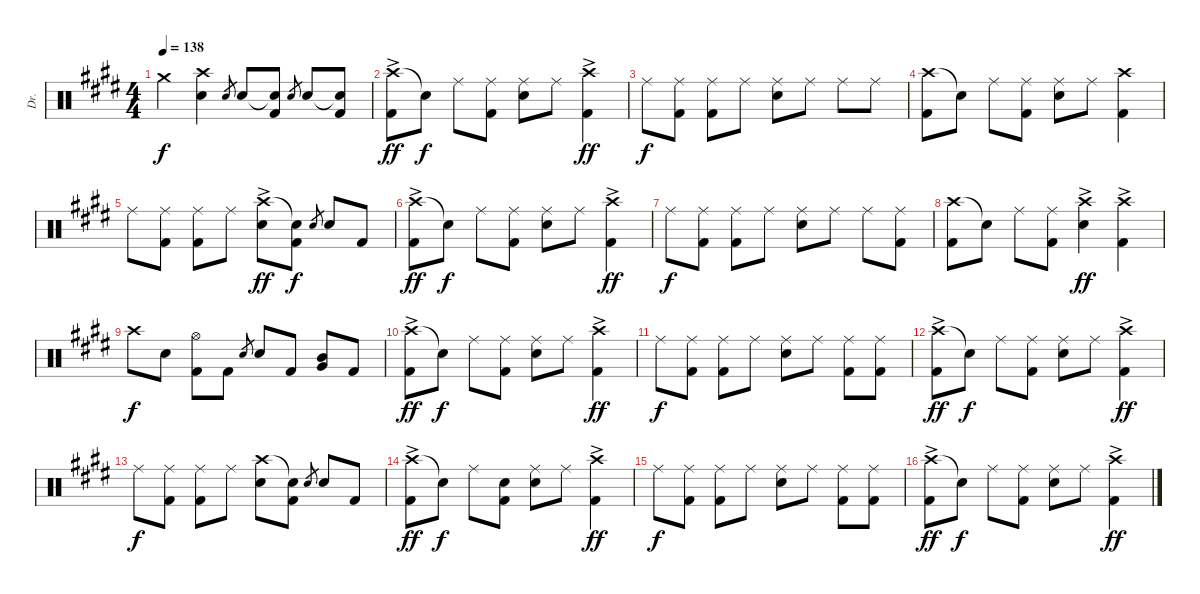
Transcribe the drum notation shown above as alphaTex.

\track ("Dr." "Dr.") {instrument percussion}
\staff {score}
\articulation defaults
\ts (4 4)
\tempo 138
\clef neutral
\ks e "Crash medium (hit)".4{dy f}
("Crash high (hit)" "Snare (hit) 2").4 "Snare (hit) 2".8{gr} "Snare (hit) 2".8 ("Snare (hit)"{t} "Kick (hit) 2").8 "Snare (hit) 2".8{gr} "Snare (hit) 2".8 ("Snare (hit)"{t} "Kick (hit) 2").8 |
("Crash high (hit)"{ac} "Kick (hit) 2").8{dy ff} "Snare (hit)"{t}.8{dy f} "Ride (middle)".8 ("Ride (middle)" "Kick (hit) 2").8 ("Ride (middle)" "Snare (hit) 2").8 "Ride (middle)".8 ("Crash high (hit)"{ac} "Kick (hit) 2").4{dy ff} |
"Ride (middle)".8{dy f} ("Ride (middle)" "Kick (hit) 2").8 ("Ride (middle)" "Kick (hit) 2").8 "Ride (middle)".8 ("Ride (middle)" "Snare (hit) 2").8 "Ride (middle)".8 "Ride (middle)".8 "Ride (middle)".8 |
("Crash high (hit)" "Kick (hit) 2").8 "Snare (hit)"{t}.8 "Ride (middle)".8 ("Ride (middle)" "Kick (hit) 2").8 ("Ride (middle)" "Snare (hit) 2").8 "Ride (middle)".8 ("Crash high (hit)" "Kick (hit) 2").4 |
"Ride (middle)".8 ("Ride (middle)" "Kick (hit) 2").8 ("Ride (middle)" "Kick (hit) 2").8 "Ride (middle)".8 ("Crash high (hit)"{ac} "Snare (hit) 2").8{dy ff} ("Snare (hit)"{t} "Kick (hit) 2").8{dy f} "Snare (hit) 2".8{gr} "Snare (hit) 2".8 "Kick (hit) 2".8 |
("Crash high (hit)"{ac} "Kick (hit) 2").8{dy ff} "Snare (hit)"{t}.8{dy f} "Ride (middle)".8 ("Ride (middle)" "Kick (hit) 2").8 ("Ride (middle)" "Snare (hit) 2").8 "Ride (middle)".8 ("Crash high (hit)"{ac} "Kick (hit) 2").4{dy ff} |
"Ride (middle)".8{dy f} ("Ride (middle)" "Kick (hit) 2").8 ("Ride (middle)" "Kick (hit) 2").8 "Ride (middle)".8 ("Ride (middle)" "Snare (hit) 2").8 "Ride (middle)".8 "Ride (middle)".8 ("Ride (middle)" "Kick (hit) 2").8 |
("Crash high (hit)" "Kick (hit) 2").8 "Snare (hit)"{t}.8 "Ride (middle)".8 ("Ride (middle)" "Kick (hit) 2").8 ("Crash high (hit)"{ac} "Snare (hit) 2").4{dy ff} ("Crash high (hit)"{ac} "Kick (hit) 2").4 |
"Crash high (hit)".8{dy f} "Snare (hit) 2".8 ("Hi-Hat (open)" "Kick (hit) 2").8 "Kick (hit) 2".8 "Snare (hit) 2".8{gr} "Snare (hit) 2".8 "Kick (hit) 2".8 ("Mid Tom (hit)" "Very Low Tom (hit)").8 "Kick (hit) 2".8 |
("Crash high (hit)"{ac} "Kick (hit) 2").8{dy ff} "Snare (hit)"{t}.8{dy f} "Ride (middle)".8 ("Ride (middle)" "Kick (hit) 2").8 ("Ride (middle)" "Snare (hit) 2").8 "Ride (middle)".8 ("Crash high (hit)"{ac} "Kick (hit) 2").4{dy ff} |
"Ride (middle)".8{dy f} ("Ride (middle)" "Kick (hit) 2").8 ("Ride (middle)" "Kick (hit) 2").8 "Ride (middle)".8 ("Ride (middle)" "Snare (hit) 2").8 "Ride (middle)".8 ("Ride (middle)" "Kick (hit) 2").8 ("Ride (middle)" "Kick (hit) 2").8 |
("Crash high (hit)"{ac} "Kick (hit) 2").8{dy ff} "Snare (hit)"{t}.8{dy f} "Ride (middle)".8 ("Ride (middle)" "Kick (hit) 2").8 ("Ride (middle)" "Snare (hit) 2").8 "Ride (middle)".8 ("Crash high (hit)"{ac} "Kick (hit) 2").4{dy ff} |
"Ride (middle)".8{dy f} ("Ride (middle)" "Kick (hit) 2").8 ("Ride (middle)" "Kick (hit) 2").8 "Ride (middle)".8 ("Crash high (hit)" "Snare (hit) 2").8 ("Snare (hit)"{t} "Kick (hit) 2").8 "Snare (hit) 2".8{gr} "Snare (hit) 2".8 "Kick (hit) 2".8 |
("Crash high (hit)"{ac} "Kick (hit) 2").8{dy ff} "Snare (hit)"{t}.8{dy f} "Ride (middle)".8 ("Snare (hit)" "Kick (hit) 2").8 ("Ride (middle)" "Snare (hit) 2").8 "Ride (middle)".8 ("Crash high (hit)"{ac} "Kick (hit) 2").4{dy ff} |
"Ride (middle)".8{dy f} ("Ride (middle)" "Kick (hit) 2").8 ("Ride (middle)" "Kick (hit) 2").8 "Ride (middle)".8 ("Ride (middle)" "Snare (hit) 2").8 "Ride (middle)".8 ("Ride (middle)" "Kick (hit) 2").8 ("Ride (middle)" "Kick (hit) 2").8 |
("Crash high (hit)"{ac} "Kick (hit) 2").8{dy ff} "Snare (hit)"{t}.8{dy f} "Ride (middle)".8 ("Ride (middle)" "Kick (hit) 2").8 ("Ride (middle)" "Snare (hit) 2").8 "Ride (middle)".8 ("Crash high (hit)"{ac} "Kick (hit) 2").4{dy ff}
